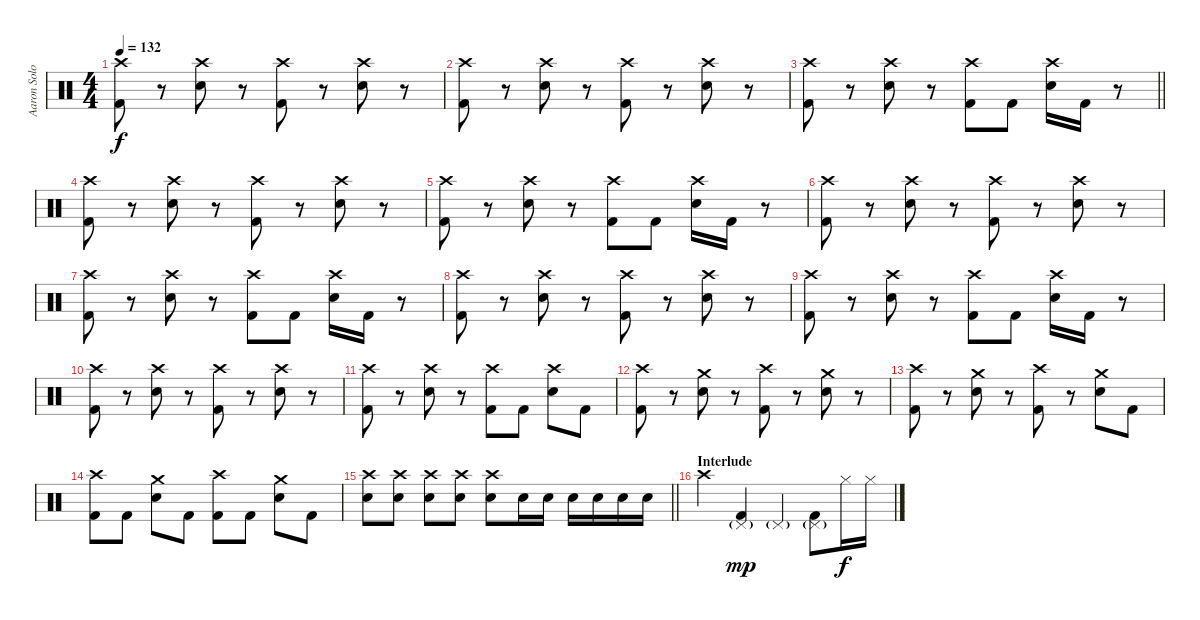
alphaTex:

\track ("Aaron Solowoniuk" "Aaron Solo") {instrument percussion}
\staff {score}
\articulation defaults
\ts (4 4)
\tempo 132
\clef neutral
\ks c
("Crash high (hit)" "Kick (hit) 2").8{dy f} r.8 ("Crash high (hit)" "Electric Snare (hit)").8 r.8 ("Crash high (hit)" "Kick (hit) 2").8 r.8 ("Crash high (hit)" "Electric Snare (hit)").8 r.8 |
("Crash high (hit)" "Kick (hit) 2").8 r.8 ("Crash high (hit)" "Electric Snare (hit)").8 r.8 ("Crash high (hit)" "Kick (hit) 2").8 r.8 ("Crash high (hit)" "Electric Snare (hit)").8 r.8 |
\barLineRight lightlight
("Crash high (hit)" "Kick (hit) 2").8 r.8 ("Crash high (hit)" "Electric Snare (hit)").8 r.8 ("Crash high (hit)" "Kick (hit) 2").8 "Kick (hit) 2".8 ("Crash high (hit)" "Electric Snare (hit)").16 "Kick (hit) 2".16 r.8 |
("Crash high (hit)" "Kick (hit) 2").8 r.8 ("Crash high (hit)" "Electric Snare (hit)").8 r.8 ("Crash high (hit)" "Kick (hit) 2").8 r.8 ("Crash high (hit)" "Electric Snare (hit)").8 r.8 |
("Crash high (hit)" "Kick (hit) 2").8 r.8 ("Crash high (hit)" "Electric Snare (hit)").8 r.8 ("Crash high (hit)" "Kick (hit) 2").8 "Kick (hit) 2".8 ("Crash high (hit)" "Electric Snare (hit)").16 "Kick (hit) 2".16 r.8 |
("Crash high (hit)" "Kick (hit) 2").8 r.8 ("Crash high (hit)" "Electric Snare (hit)").8 r.8 ("Crash high (hit)" "Kick (hit) 2").8 r.8 ("Crash high (hit)" "Electric Snare (hit)").8 r.8 |
("Crash high (hit)" "Kick (hit) 2").8 r.8 ("Crash high (hit)" "Electric Snare (hit)").8 r.8 ("Crash high (hit)" "Kick (hit) 2").8 "Kick (hit) 2".8 ("Crash high (hit)" "Electric Snare (hit)").16 "Kick (hit) 2".16 r.8 |
("Crash high (hit)" "Kick (hit) 2").8 r.8 ("Crash high (hit)" "Electric Snare (hit)").8 r.8 ("Crash high (hit)" "Kick (hit) 2").8 r.8 ("Crash high (hit)" "Electric Snare (hit)").8 r.8 |
("Crash high (hit)" "Kick (hit) 2").8 r.8 ("Crash high (hit)" "Electric Snare (hit)").8 r.8 ("Crash high (hit)" "Kick (hit) 2").8 "Kick (hit) 2".8 ("Crash high (hit)" "Electric Snare (hit)").16 "Kick (hit) 2".16 r.8 |
("Crash high (hit)" "Kick (hit) 2").8 r.8 ("Crash high (hit)" "Electric Snare (hit)").8 r.8 ("Crash high (hit)" "Kick (hit) 2").8 r.8 ("Crash high (hit)" "Electric Snare (hit)").8 r.8 |
("Crash high (hit)" "Kick (hit) 2").8 r.8 ("Crash high (hit)" "Electric Snare (hit)").8 r.8 ("Crash high (hit)" "Kick (hit) 2").8 "Kick (hit) 2".8 ("Crash high (hit)" "Electric Snare (hit)").8 "Kick (hit) 2".8 |
("Crash high (hit)" "Kick (hit) 2").8 r.8 ("Crash medium (hit)" "Electric Snare (hit)").8 r.8 ("Crash high (hit)" "Kick (hit) 2").8 r.8 ("Crash medium (hit)" "Electric Snare (hit)").8 r.8 |
("Crash high (hit)" "Kick (hit) 2").8 r.8 ("Crash medium (hit)" "Electric Snare (hit)").8 r.8 ("Crash high (hit)" "Kick (hit) 2").8 r.8 ("Crash medium (hit)" "Electric Snare (hit)").8 "Kick (hit) 2".8 |
("Crash high (hit)" "Kick (hit) 2").8 "Kick (hit) 2".8 ("Crash medium (hit)" "Electric Snare (hit)").8 "Kick (hit) 2".8 ("Crash high (hit)" "Kick (hit) 2").8 "Kick (hit) 2".8 ("Crash medium (hit)" "Electric Snare (hit)").8 "Kick (hit) 2".8 |
\barLineRight lightlight
("Crash high (hit)" "Electric Snare (hit)").8 ("Crash high (hit)" "Electric Snare (hit)").8 ("Crash high (hit)" "Electric Snare (hit)").8 ("Crash high (hit)" "Electric Snare (hit)").8 ("Crash high (hit)" "Electric Snare (hit)").8 "Electric Snare (hit)".16 "Electric Snare (hit)".16 "Electric Snare (hit)".16 "Electric Snare (hit)".16 "Electric Snare (hit)".16 "Electric Snare (hit)".16 |
\section ("" "Interlude")
"Crash high (hit)".4 ("Pedal Hi-Hat (hit)"{g} "Kick (hit) 2").4{dy mp} "Pedal Hi-Hat (hit)"{g}.4 ("Pedal Hi-Hat (hit)"{g} "Kick (hit) 2").8 "Hi-Hat (closed)".16{dy f} "Hi-Hat (closed)".16
